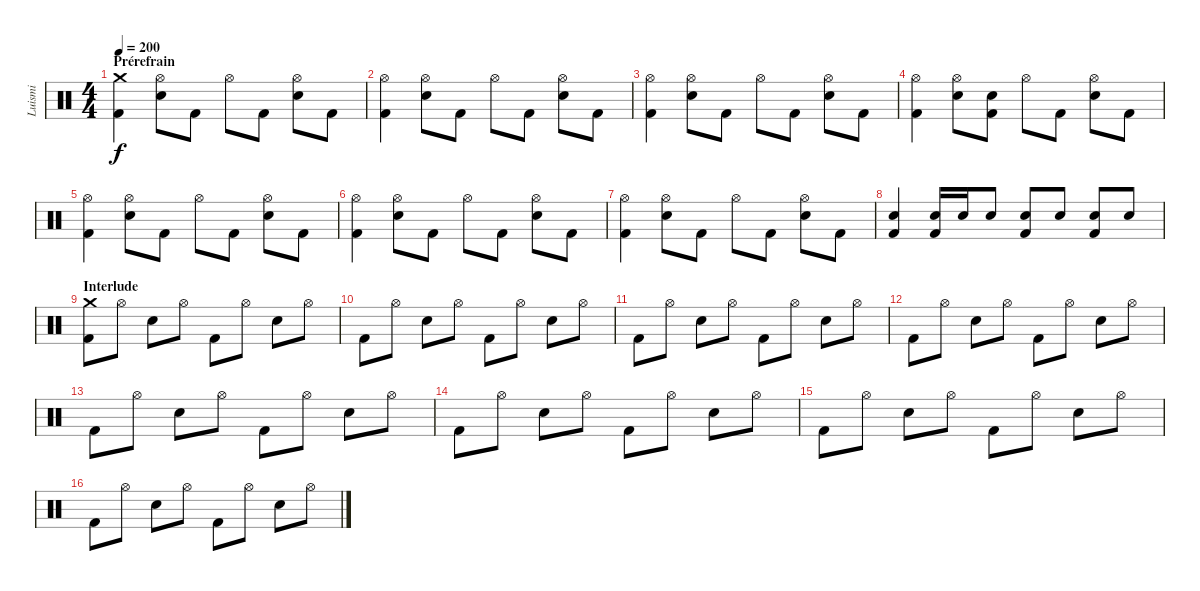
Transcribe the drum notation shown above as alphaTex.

\track ("Luismi" "Luismi") {instrument percussion}
\staff {score}
\articulation defaults
\ts (4 4)
\section ("" "Prérefrain")
\tempo 200
\clef neutral
\ks c
("Crash medium (hit)" "Kick (hit) 2").4{dy f} ("Hi-Hat (open)" "Snare (hit) 2").8 "Kick (hit) 2".8 "Hi-Hat (open)".8 "Kick (hit) 2".8 ("Hi-Hat (open)" "Snare (hit) 2").8 "Kick (hit) 2".8 |
("Hi-Hat (open)" "Kick (hit) 2").4 ("Hi-Hat (open)" "Snare (hit) 2").8 "Kick (hit) 2".8 "Hi-Hat (open)".8 "Kick (hit) 2".8 ("Hi-Hat (open)" "Snare (hit) 2").8 "Kick (hit) 2".8 |
("Hi-Hat (open)" "Kick (hit) 2").4 ("Hi-Hat (open)" "Snare (hit) 2").8 "Kick (hit) 2".8 "Hi-Hat (open)".8 "Kick (hit) 2".8 ("Hi-Hat (open)" "Snare (hit) 2").8 "Kick (hit) 2".8 |
("Hi-Hat (open)" "Kick (hit) 2").4 ("Hi-Hat (open)" "Snare (hit) 2").8 ("Snare (hit) 2" "Kick (hit) 2").8 "Hi-Hat (open)".8 "Kick (hit) 2".8 ("Hi-Hat (open)" "Snare (hit) 2").8 "Kick (hit) 2".8 |
("Hi-Hat (open)" "Kick (hit) 2").4 ("Hi-Hat (open)" "Snare (hit) 2").8 "Kick (hit) 2".8 "Hi-Hat (open)".8 "Kick (hit) 2".8 ("Hi-Hat (open)" "Snare (hit) 2").8 "Kick (hit) 2".8 |
("Hi-Hat (open)" "Kick (hit) 2").4 ("Hi-Hat (open)" "Snare (hit) 2").8 "Kick (hit) 2".8 "Hi-Hat (open)".8 "Kick (hit) 2".8 ("Hi-Hat (open)" "Snare (hit) 2").8 "Kick (hit) 2".8 |
("Hi-Hat (open)" "Kick (hit) 2").4 ("Hi-Hat (open)" "Snare (hit) 2").8 "Kick (hit) 2".8 "Hi-Hat (open)".8 "Kick (hit) 2".8 ("Hi-Hat (open)" "Snare (hit) 2").8 "Kick (hit) 2".8 |
("Snare (hit) 2" "Kick (hit) 2").4 ("Snare (hit) 2" "Kick (hit) 2").16 "Snare (hit) 2".16 "Snare (hit) 2".8 ("Snare (hit) 2" "Kick (hit) 2").8 "Snare (hit) 2".8 ("Snare (hit) 2" "Kick (hit) 2").8 "Snare (hit) 2".8 |
\section ("" "Interlude")
("Crash medium (hit)" "Kick (hit) 2").8 "Hi-Hat (open)".8 "Snare (hit) 2".8 "Hi-Hat (open)".8 "Kick (hit) 2".8 "Hi-Hat (open)".8 "Snare (hit) 2".8 "Hi-Hat (open)".8 |
"Kick (hit) 2".8 "Hi-Hat (open)".8 "Snare (hit) 2".8 "Hi-Hat (open)".8 "Kick (hit) 2".8 "Hi-Hat (open)".8 "Snare (hit) 2".8 "Hi-Hat (open)".8 |
"Kick (hit) 2".8 "Hi-Hat (open)".8 "Snare (hit) 2".8 "Hi-Hat (open)".8 "Kick (hit) 2".8 "Hi-Hat (open)".8 "Snare (hit) 2".8 "Hi-Hat (open)".8 |
"Kick (hit) 2".8 "Hi-Hat (open)".8 "Snare (hit) 2".8 "Hi-Hat (open)".8 "Kick (hit) 2".8 "Hi-Hat (open)".8 "Snare (hit) 2".8 "Hi-Hat (open)".8 |
"Kick (hit) 2".8 "Hi-Hat (open)".8 "Snare (hit) 2".8 "Hi-Hat (open)".8 "Kick (hit) 2".8 "Hi-Hat (open)".8 "Snare (hit) 2".8 "Hi-Hat (open)".8 |
"Kick (hit) 2".8 "Hi-Hat (open)".8 "Snare (hit) 2".8 "Hi-Hat (open)".8 "Kick (hit) 2".8 "Hi-Hat (open)".8 "Snare (hit) 2".8 "Hi-Hat (open)".8 |
"Kick (hit) 2".8 "Hi-Hat (open)".8 "Snare (hit) 2".8 "Hi-Hat (open)".8 "Kick (hit) 2".8 "Hi-Hat (open)".8 "Snare (hit) 2".8 "Hi-Hat (open)".8 |
"Kick (hit) 2".8 "Hi-Hat (open)".8 "Snare (hit) 2".8 "Hi-Hat (open)".8 "Kick (hit) 2".8 "Hi-Hat (open)".8 "Snare (hit) 2".8 "Hi-Hat (open)".8
